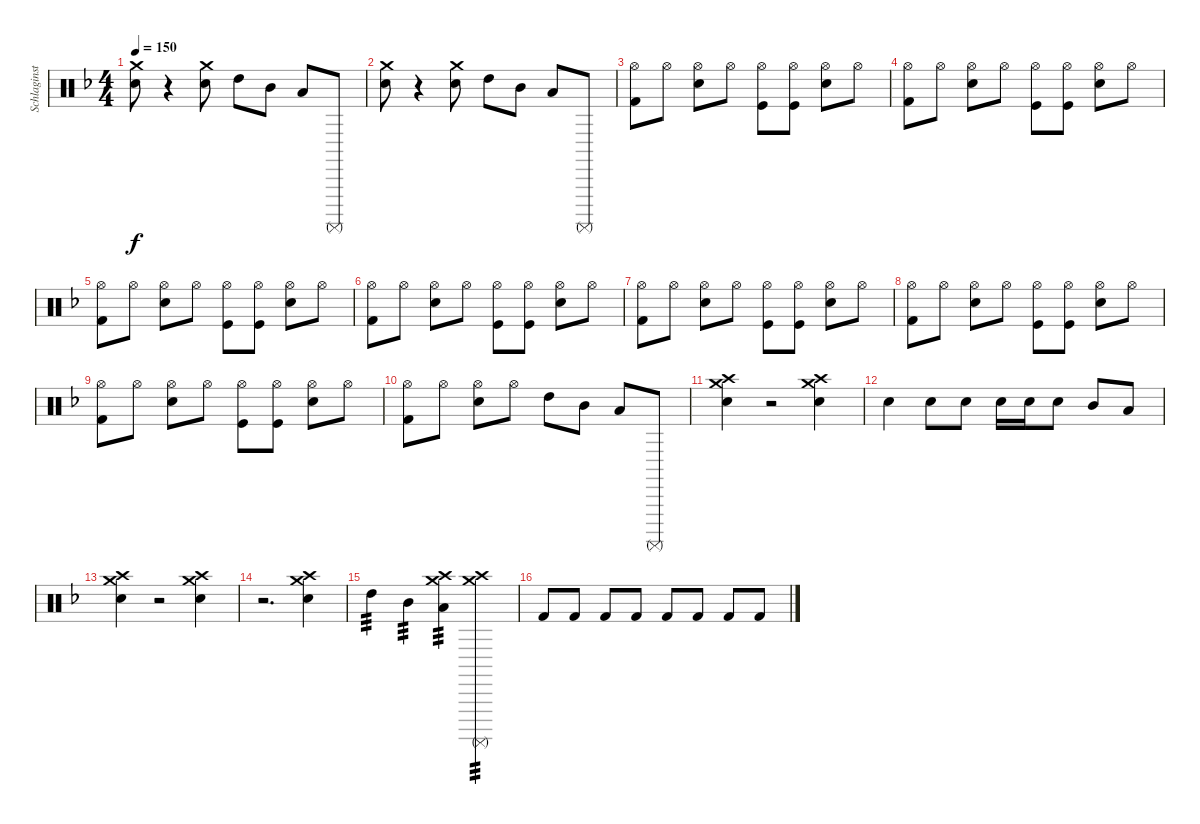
\track ("Schlaginstrumente - Auswahl" "Schlaginst") {instrument percussion}
\staff {score}
\articulation defaults
\ts (4 4)
\tempo 150
\clef neutral
\ks f
("Crash medium (hit)" "Snare (hit) 2").8{dy f} r.4 ("Snare (hit) 2" "Crash medium (hit)").8 "High Tom (hit)".8 "Mid Tom (hit)".8 "Low Tom (hit)".8 "Surdo (mute)".8 |
("Crash medium (hit)" "Snare (hit) 2").8 r.4 ("Snare (hit) 2" "Crash medium (hit)").8 "High Tom (hit)".8 "Mid Tom (hit)".8 "Low Tom (hit)".8 "Surdo (mute)".8 |
("Hi-Hat (open)" "Kick (hit) 2").8 "Hi-Hat (open)".8 ("Hi-Hat (open)" "Snare (hit) 2").8 "Hi-Hat (open)".8 ("Hi-Hat (open)" "Kick (hit)").8 ("Kick (hit)" "Hi-Hat (open)").8 ("Hi-Hat (open)" "Snare (hit) 2").8 "Hi-Hat (open)".8 |
("Hi-Hat (open)" "Kick (hit) 2").8 "Hi-Hat (open)".8 ("Hi-Hat (open)" "Snare (hit) 2").8 "Hi-Hat (open)".8 ("Hi-Hat (open)" "Kick (hit)").8 ("Kick (hit)" "Hi-Hat (open)").8 ("Hi-Hat (open)" "Snare (hit) 2").8 "Hi-Hat (open)".8 |
("Hi-Hat (open)" "Kick (hit) 2").8 "Hi-Hat (open)".8 ("Hi-Hat (open)" "Snare (hit) 2").8 "Hi-Hat (open)".8 ("Hi-Hat (open)" "Kick (hit)").8 ("Kick (hit)" "Hi-Hat (open)").8 ("Hi-Hat (open)" "Snare (hit) 2").8 "Hi-Hat (open)".8 |
("Hi-Hat (open)" "Kick (hit) 2").8 "Hi-Hat (open)".8 ("Hi-Hat (open)" "Snare (hit) 2").8 "Hi-Hat (open)".8 ("Hi-Hat (open)" "Kick (hit)").8 ("Kick (hit)" "Hi-Hat (open)").8 ("Hi-Hat (open)" "Snare (hit) 2").8 "Hi-Hat (open)".8 |
("Hi-Hat (open)" "Kick (hit) 2").8 "Hi-Hat (open)".8 ("Hi-Hat (open)" "Snare (hit) 2").8 "Hi-Hat (open)".8 ("Hi-Hat (open)" "Kick (hit)").8 ("Kick (hit)" "Hi-Hat (open)").8 ("Hi-Hat (open)" "Snare (hit) 2").8 "Hi-Hat (open)".8 |
("Hi-Hat (open)" "Kick (hit) 2").8 "Hi-Hat (open)".8 ("Hi-Hat (open)" "Snare (hit) 2").8 "Hi-Hat (open)".8 ("Hi-Hat (open)" "Kick (hit)").8 ("Kick (hit)" "Hi-Hat (open)").8 ("Hi-Hat (open)" "Snare (hit) 2").8 "Hi-Hat (open)".8 |
("Hi-Hat (open)" "Kick (hit) 2").8 "Hi-Hat (open)".8 ("Hi-Hat (open)" "Snare (hit) 2").8 "Hi-Hat (open)".8 ("Hi-Hat (open)" "Kick (hit)").8 ("Kick (hit)" "Hi-Hat (open)").8 ("Hi-Hat (open)" "Snare (hit) 2").8 "Hi-Hat (open)".8 |
("Hi-Hat (open)" "Kick (hit) 2").8 "Hi-Hat (open)".8 ("Hi-Hat (open)" "Snare (hit) 2").8 "Hi-Hat (open)".8 "High Tom (hit)".8 "Mid Tom (hit)".8 "Low Tom (hit)".8 "Surdo (mute)".8 |
("Snare (hit) 2" "Crash high (hit)" "Crash medium (hit)").4 r.2 ("Snare (hit) 2" "Crash high (hit)" "Crash medium (hit)").4 |
"Snare (hit) 2".4 "Snare (hit) 2".8 "Snare (hit) 2".8 "Snare (hit) 2".16 "Snare (hit) 2".16 "Snare (hit) 2".8 "Mid Tom (hit)".8 "Low Tom (hit)".8 |
("Snare (hit) 2" "Crash high (hit)" "Crash medium (hit)").4 r.2 ("Snare (hit) 2" "Crash high (hit)" "Crash medium (hit)").4 |
r.2{d} ("Snare (hit) 2" "Crash medium (hit)" "Crash high (hit)").4 |
"High Tom (hit)".4{tp 3} "Mid Tom (hit)".4{tp 3} ("Low Tom (hit)" "Crash medium (hit)" "Crash high (hit)").4{tp 3} ("Surdo (mute)" "Crash high (hit)" "Crash medium (hit)").4{tp 3} |
"Kick (hit) 2".8 "Kick (hit) 2".8 "Kick (hit) 2".8 "Kick (hit) 2".8 "Kick (hit) 2".8 "Kick (hit) 2".8 "Kick (hit) 2".8 "Kick (hit) 2".8
